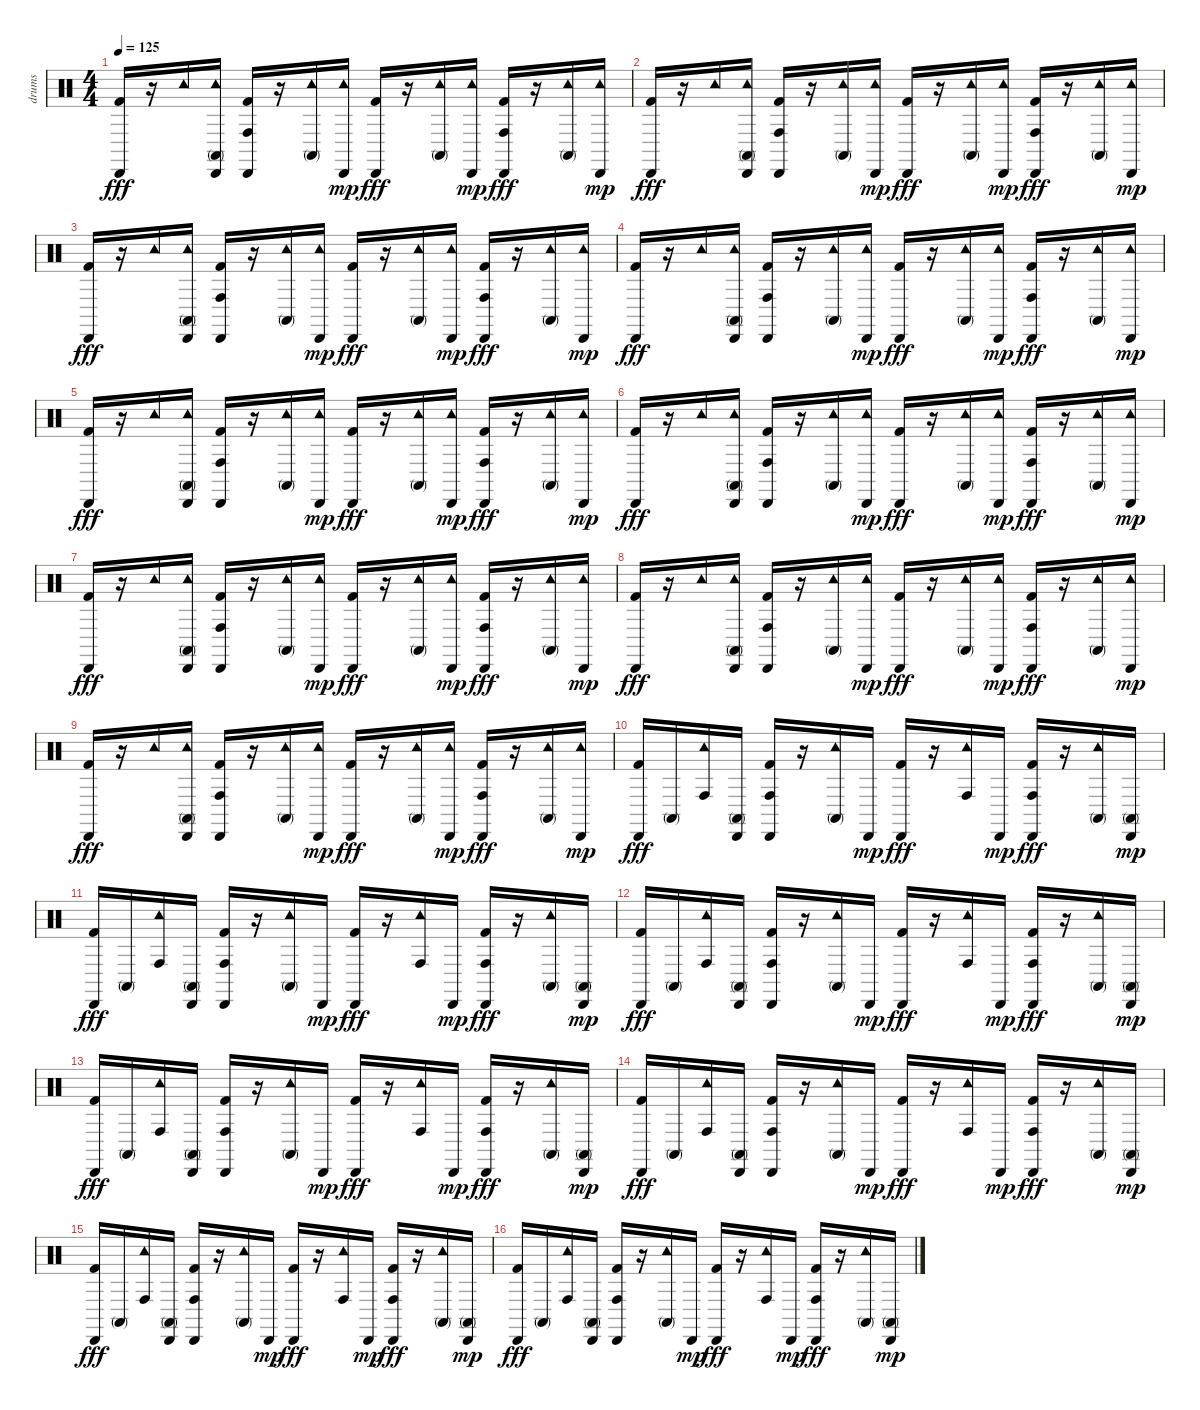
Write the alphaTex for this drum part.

\track ("drums" "drums") {instrument percussion}
\staff {score}
\articulation defaults
\ts (4 4)
\tempo 125
\clef neutral
\ks c
("Cabasa (hit)" "Kick (hit) 2").16{dy fff} r.16 "Tambourine (hit)".16 ("Tambourine (hit)" "Cabasa (hit)" "Conga high (mute)").16 ("Cabasa (hit)" "Conga high (hit)" "Kick (hit) 2").16 r.16 ("Conga high (mute)" "Tambourine (hit)").16 ("Tambourine (hit)" "Cabasa (hit)").16{dy mp} ("Cabasa (hit)" "Kick (hit) 2").16{dy fff} r.16 ("Conga high (mute)" "Tambourine (hit)").16 ("Tambourine (hit)" "Cabasa (hit)").16{dy mp} ("Cabasa (hit)" "Conga high (hit)" "Kick (hit) 2").16{dy fff} r.16 ("Conga high (mute)" "Tambourine (hit)").16 ("Tambourine (hit)" "Cabasa (hit)").16{dy mp} |
("Cabasa (hit)" "Kick (hit) 2").16{dy fff} r.16 "Tambourine (hit)".16 ("Tambourine (hit)" "Cabasa (hit)" "Conga high (mute)").16 ("Cabasa (hit)" "Conga high (hit)" "Kick (hit) 2").16 r.16 ("Conga high (mute)" "Tambourine (hit)").16 ("Tambourine (hit)" "Cabasa (hit)").16{dy mp} ("Cabasa (hit)" "Kick (hit) 2").16{dy fff} r.16 ("Conga high (mute)" "Tambourine (hit)").16 ("Tambourine (hit)" "Cabasa (hit)").16{dy mp} ("Cabasa (hit)" "Conga high (hit)" "Kick (hit) 2").16{dy fff} r.16 ("Conga high (mute)" "Tambourine (hit)").16 ("Tambourine (hit)" "Cabasa (hit)").16{dy mp} |
("Cabasa (hit)" "Kick (hit) 2").16{dy fff} r.16 "Tambourine (hit)".16 ("Tambourine (hit)" "Cabasa (hit)" "Conga high (mute)").16 ("Cabasa (hit)" "Conga high (hit)" "Kick (hit) 2").16 r.16 ("Conga high (mute)" "Tambourine (hit)").16 ("Tambourine (hit)" "Cabasa (hit)").16{dy mp} ("Cabasa (hit)" "Kick (hit) 2").16{dy fff} r.16 ("Conga high (mute)" "Tambourine (hit)").16 ("Tambourine (hit)" "Cabasa (hit)").16{dy mp} ("Cabasa (hit)" "Conga high (hit)" "Kick (hit) 2").16{dy fff} r.16 ("Conga high (mute)" "Tambourine (hit)").16 ("Tambourine (hit)" "Cabasa (hit)").16{dy mp} |
("Cabasa (hit)" "Kick (hit) 2").16{dy fff} r.16 "Tambourine (hit)".16 ("Tambourine (hit)" "Cabasa (hit)" "Conga high (mute)").16 ("Cabasa (hit)" "Conga high (hit)" "Kick (hit) 2").16 r.16 ("Conga high (mute)" "Tambourine (hit)").16 ("Tambourine (hit)" "Cabasa (hit)").16{dy mp} ("Cabasa (hit)" "Kick (hit) 2").16{dy fff} r.16 ("Conga high (mute)" "Tambourine (hit)").16 ("Tambourine (hit)" "Cabasa (hit)").16{dy mp} ("Cabasa (hit)" "Conga high (hit)" "Kick (hit) 2").16{dy fff} r.16 ("Conga high (mute)" "Tambourine (hit)").16 ("Tambourine (hit)" "Cabasa (hit)").16{dy mp} |
("Cabasa (hit)" "Kick (hit) 2").16{dy fff} r.16 "Tambourine (hit)".16 ("Tambourine (hit)" "Cabasa (hit)" "Conga high (mute)").16 ("Cabasa (hit)" "Conga high (hit)" "Kick (hit) 2").16 r.16 ("Conga high (mute)" "Tambourine (hit)").16 ("Tambourine (hit)" "Cabasa (hit)").16{dy mp} ("Cabasa (hit)" "Kick (hit) 2").16{dy fff} r.16 ("Conga high (mute)" "Tambourine (hit)").16 ("Tambourine (hit)" "Cabasa (hit)").16{dy mp} ("Cabasa (hit)" "Conga high (hit)" "Kick (hit) 2").16{dy fff} r.16 ("Conga high (mute)" "Tambourine (hit)").16 ("Tambourine (hit)" "Cabasa (hit)").16{dy mp} |
("Cabasa (hit)" "Kick (hit) 2").16{dy fff} r.16 "Tambourine (hit)".16 ("Tambourine (hit)" "Cabasa (hit)" "Conga high (mute)").16 ("Cabasa (hit)" "Conga high (hit)" "Kick (hit) 2").16 r.16 ("Conga high (mute)" "Tambourine (hit)").16 ("Tambourine (hit)" "Cabasa (hit)").16{dy mp} ("Cabasa (hit)" "Kick (hit) 2").16{dy fff} r.16 ("Conga high (mute)" "Tambourine (hit)").16 ("Tambourine (hit)" "Cabasa (hit)").16{dy mp} ("Cabasa (hit)" "Conga high (hit)" "Kick (hit) 2").16{dy fff} r.16 ("Conga high (mute)" "Tambourine (hit)").16 ("Tambourine (hit)" "Cabasa (hit)").16{dy mp} |
("Cabasa (hit)" "Kick (hit) 2").16{dy fff} r.16 "Tambourine (hit)".16 ("Tambourine (hit)" "Cabasa (hit)" "Conga high (mute)").16 ("Cabasa (hit)" "Conga high (hit)" "Kick (hit) 2").16 r.16 ("Conga high (mute)" "Tambourine (hit)").16 ("Tambourine (hit)" "Cabasa (hit)").16{dy mp} ("Cabasa (hit)" "Kick (hit) 2").16{dy fff} r.16 ("Conga high (mute)" "Tambourine (hit)").16 ("Tambourine (hit)" "Cabasa (hit)").16{dy mp} ("Cabasa (hit)" "Conga high (hit)" "Kick (hit) 2").16{dy fff} r.16 ("Conga high (mute)" "Tambourine (hit)").16 ("Tambourine (hit)" "Cabasa (hit)").16{dy mp} |
("Cabasa (hit)" "Kick (hit) 2").16{dy fff} r.16 "Tambourine (hit)".16 ("Tambourine (hit)" "Cabasa (hit)" "Conga high (mute)").16 ("Cabasa (hit)" "Conga high (hit)" "Kick (hit) 2").16 r.16 ("Conga high (mute)" "Tambourine (hit)").16 ("Tambourine (hit)" "Cabasa (hit)").16{dy mp} ("Cabasa (hit)" "Kick (hit) 2").16{dy fff} r.16 ("Conga high (mute)" "Tambourine (hit)").16 ("Tambourine (hit)" "Cabasa (hit)").16{dy mp} ("Cabasa (hit)" "Conga high (hit)" "Kick (hit) 2").16{dy fff} r.16 ("Conga high (mute)" "Tambourine (hit)").16 ("Tambourine (hit)" "Cabasa (hit)").16{dy mp} |
("Cabasa (hit)" "Kick (hit) 2").16{dy fff} r.16 "Tambourine (hit)".16 ("Tambourine (hit)" "Cabasa (hit)" "Conga high (mute)").16 ("Cabasa (hit)" "Conga high (hit)" "Kick (hit) 2").16 r.16 ("Conga high (mute)" "Tambourine (hit)").16 ("Tambourine (hit)" "Cabasa (hit)").16{dy mp} ("Cabasa (hit)" "Kick (hit) 2").16{dy fff} r.16 ("Conga high (mute)" "Tambourine (hit)").16 ("Tambourine (hit)" "Cabasa (hit)").16{dy mp} ("Cabasa (hit)" "Conga high (hit)" "Kick (hit) 2").16{dy fff} r.16 ("Conga high (mute)" "Tambourine (hit)").16 ("Tambourine (hit)" "Cabasa (hit)").16{dy mp} |
("Cabasa (hit)" "Kick (hit) 2").16{dy fff} "Conga high (mute)".16 ("Conga high (hit)" "Tambourine (hit)").16 ("Cabasa (hit)" "Conga high (mute)").16 ("Cabasa (hit)" "Conga high (hit)" "Kick (hit) 2").16 r.16 ("Conga high (mute)" "Tambourine (hit)").16 "Cabasa (hit)".16{dy mp} ("Cabasa (hit)" "Kick (hit) 2").16{dy fff} r.16 ("Conga high (hit)" "Tambourine (hit)").16 "Cabasa (hit)".16{dy mp} ("Conga high (hit)" "Cabasa (hit)" "Kick (hit) 2").16{dy fff} r.16 ("Conga high (mute)" "Tambourine (hit)").16 ("Conga high (mute)" "Cabasa (hit)").16{dy mp} |
("Cabasa (hit)" "Kick (hit) 2").16{dy fff} "Conga high (mute)".16 ("Conga high (hit)" "Tambourine (hit)").16 ("Cabasa (hit)" "Conga high (mute)").16 ("Cabasa (hit)" "Conga high (hit)" "Kick (hit) 2").16 r.16 ("Conga high (mute)" "Tambourine (hit)").16 "Cabasa (hit)".16{dy mp} ("Cabasa (hit)" "Kick (hit) 2").16{dy fff} r.16 ("Conga high (hit)" "Tambourine (hit)").16 "Cabasa (hit)".16{dy mp} ("Conga high (hit)" "Cabasa (hit)" "Kick (hit) 2").16{dy fff} r.16 ("Conga high (mute)" "Tambourine (hit)").16 ("Conga high (mute)" "Cabasa (hit)").16{dy mp} |
("Cabasa (hit)" "Kick (hit) 2").16{dy fff} "Conga high (mute)".16 ("Conga high (hit)" "Tambourine (hit)").16 ("Cabasa (hit)" "Conga high (mute)").16 ("Cabasa (hit)" "Conga high (hit)" "Kick (hit) 2").16 r.16 ("Conga high (mute)" "Tambourine (hit)").16 "Cabasa (hit)".16{dy mp} ("Cabasa (hit)" "Kick (hit) 2").16{dy fff} r.16 ("Conga high (hit)" "Tambourine (hit)").16 "Cabasa (hit)".16{dy mp} ("Conga high (hit)" "Cabasa (hit)" "Kick (hit) 2").16{dy fff} r.16 ("Conga high (mute)" "Tambourine (hit)").16 ("Conga high (mute)" "Cabasa (hit)").16{dy mp} |
("Cabasa (hit)" "Kick (hit) 2").16{dy fff} "Conga high (mute)".16 ("Conga high (hit)" "Tambourine (hit)").16 ("Cabasa (hit)" "Conga high (mute)").16 ("Cabasa (hit)" "Conga high (hit)" "Kick (hit) 2").16 r.16 ("Conga high (mute)" "Tambourine (hit)").16 "Cabasa (hit)".16{dy mp} ("Cabasa (hit)" "Kick (hit) 2").16{dy fff} r.16 ("Conga high (hit)" "Tambourine (hit)").16 "Cabasa (hit)".16{dy mp} ("Conga high (hit)" "Cabasa (hit)" "Kick (hit) 2").16{dy fff} r.16 ("Conga high (mute)" "Tambourine (hit)").16 ("Conga high (mute)" "Cabasa (hit)").16{dy mp} |
("Cabasa (hit)" "Kick (hit) 2").16{dy fff} "Conga high (mute)".16 ("Conga high (hit)" "Tambourine (hit)").16 ("Cabasa (hit)" "Conga high (mute)").16 ("Cabasa (hit)" "Conga high (hit)" "Kick (hit) 2").16 r.16 ("Conga high (mute)" "Tambourine (hit)").16 "Cabasa (hit)".16{dy mp} ("Cabasa (hit)" "Kick (hit) 2").16{dy fff} r.16 ("Conga high (hit)" "Tambourine (hit)").16 "Cabasa (hit)".16{dy mp} ("Conga high (hit)" "Cabasa (hit)" "Kick (hit) 2").16{dy fff} r.16 ("Conga high (mute)" "Tambourine (hit)").16 ("Conga high (mute)" "Cabasa (hit)").16{dy mp} |
("Cabasa (hit)" "Kick (hit) 2").16{dy fff} "Conga high (mute)".16 ("Conga high (hit)" "Tambourine (hit)").16 ("Cabasa (hit)" "Conga high (mute)").16 ("Cabasa (hit)" "Conga high (hit)" "Kick (hit) 2").16 r.16 ("Conga high (mute)" "Tambourine (hit)").16 "Cabasa (hit)".16{dy mp} ("Cabasa (hit)" "Kick (hit) 2").16{dy fff} r.16 ("Conga high (hit)" "Tambourine (hit)").16 "Cabasa (hit)".16{dy mp} ("Conga high (hit)" "Cabasa (hit)" "Kick (hit) 2").16{dy fff} r.16 ("Conga high (mute)" "Tambourine (hit)").16 ("Conga high (mute)" "Cabasa (hit)").16{dy mp} |
("Cabasa (hit)" "Kick (hit) 2").16{dy fff} "Conga high (mute)".16 ("Conga high (hit)" "Tambourine (hit)").16 ("Cabasa (hit)" "Conga high (mute)").16 ("Cabasa (hit)" "Conga high (hit)" "Kick (hit) 2").16 r.16 ("Conga high (mute)" "Tambourine (hit)").16 "Cabasa (hit)".16{dy mp} ("Cabasa (hit)" "Kick (hit) 2").16{dy fff} r.16 ("Conga high (hit)" "Tambourine (hit)").16 "Cabasa (hit)".16{dy mp} ("Conga high (hit)" "Cabasa (hit)" "Kick (hit) 2").16{dy fff} r.16 ("Conga high (mute)" "Tambourine (hit)").16 ("Conga high (mute)" "Cabasa (hit)").16{dy mp}
